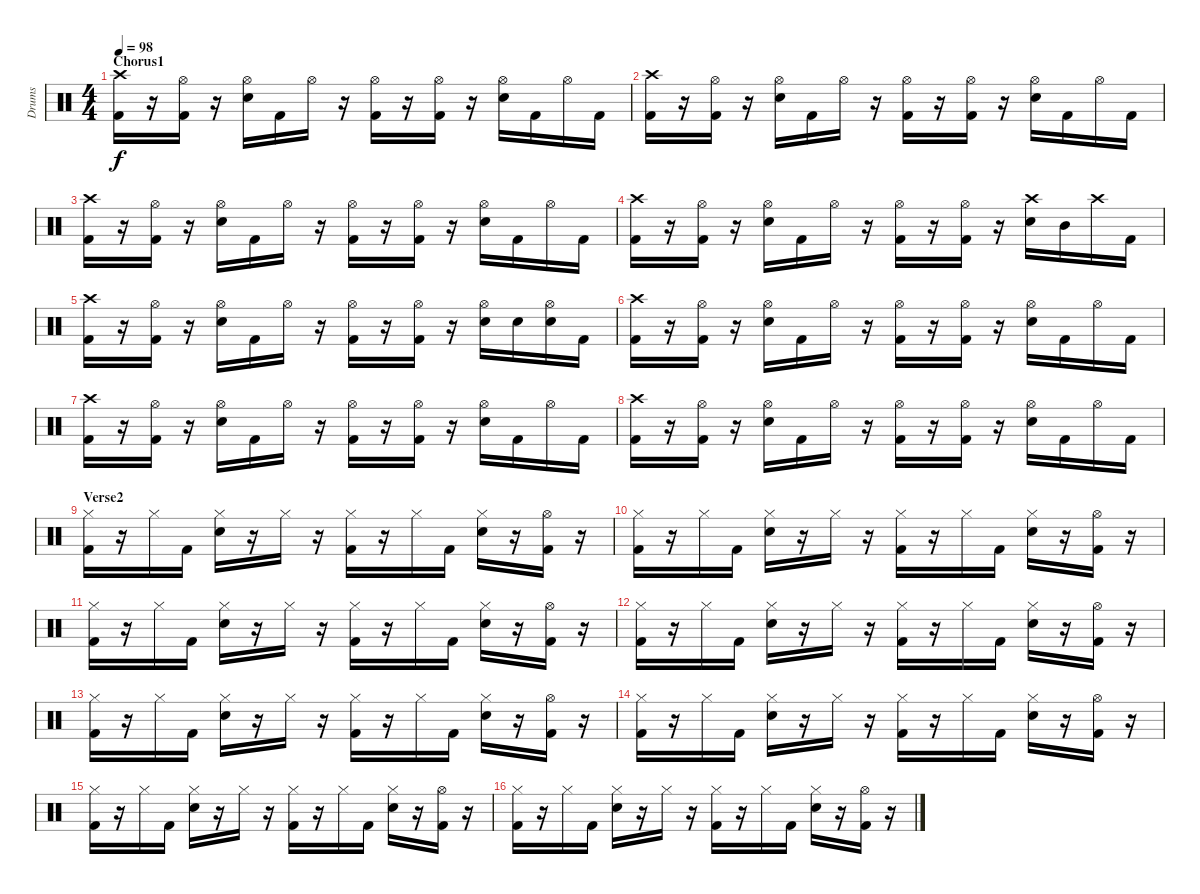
\track ("Drums" "Drums") {instrument percussion}
\staff {score}
\articulation defaults
\ts (4 4)
\section ("" "Chorus1")
\tempo 98
\clef neutral
\ks c
("Crash high (hit)" "Kick (hit) 2").16{dy f} r.16 ("Hi-Hat (open)" "Kick (hit) 2").16 r.16 ("Hi-Hat (open)" "Snare (hit) 2").16 "Kick (hit) 2".16 "Hi-Hat (open)".16 r.16 ("Hi-Hat (open)" "Kick (hit) 2").16 r.16 ("Hi-Hat (open)" "Kick (hit) 2").16 r.16 ("Hi-Hat (open)" "Snare (hit) 2").16 "Kick (hit) 2".16 "Hi-Hat (open)".16 "Kick (hit) 2".16 |
("Crash high (hit)" "Kick (hit) 2").16 r.16 ("Hi-Hat (open)" "Kick (hit) 2").16 r.16 ("Hi-Hat (open)" "Snare (hit) 2").16 "Kick (hit) 2".16 "Hi-Hat (open)".16 r.16 ("Hi-Hat (open)" "Kick (hit) 2").16 r.16 ("Hi-Hat (open)" "Kick (hit) 2").16 r.16 ("Hi-Hat (open)" "Snare (hit) 2").16 "Kick (hit) 2".16 "Hi-Hat (open)".16 "Kick (hit) 2".16 |
("Crash high (hit)" "Kick (hit) 2").16 r.16 ("Hi-Hat (open)" "Kick (hit) 2").16 r.16 ("Hi-Hat (open)" "Snare (hit) 2").16 "Kick (hit) 2".16 "Hi-Hat (open)".16 r.16 ("Hi-Hat (open)" "Kick (hit) 2").16 r.16 ("Hi-Hat (open)" "Kick (hit) 2").16 r.16 ("Hi-Hat (open)" "Snare (hit) 2").16 "Kick (hit) 2".16 "Hi-Hat (open)".16 "Kick (hit) 2".16 |
("Crash high (hit)" "Kick (hit) 2").16 r.16 ("Hi-Hat (open)" "Kick (hit) 2").16 r.16 ("Hi-Hat (open)" "Snare (hit) 2").16 "Kick (hit) 2".16 "Hi-Hat (open)".16 r.16 ("Hi-Hat (open)" "Kick (hit) 2").16 r.16 ("Hi-Hat (open)" "Kick (hit) 2").16 r.16 ("Crash high (hit)" "Snare (hit) 2").16 "Mid Tom (hit)".16 "Crash high (hit)".16 "Kick (hit) 2".16 |
("Crash high (hit)" "Kick (hit) 2").16 r.16 ("Hi-Hat (open)" "Kick (hit) 2").16 r.16 ("Hi-Hat (open)" "Snare (hit) 2").16 "Kick (hit) 2".16 "Hi-Hat (open)".16 r.16 ("Hi-Hat (open)" "Kick (hit) 2").16 r.16 ("Hi-Hat (open)" "Kick (hit) 2").16 r.16 ("Hi-Hat (open)" "Snare (hit) 2").16 "Snare (hit) 2".16 ("Hi-Hat (open)" "Snare (hit) 2").16 "Kick (hit) 2".16 |
("Crash high (hit)" "Kick (hit) 2").16 r.16 ("Hi-Hat (open)" "Kick (hit) 2").16 r.16 ("Hi-Hat (open)" "Snare (hit) 2").16 "Kick (hit) 2".16 "Hi-Hat (open)".16 r.16 ("Hi-Hat (open)" "Kick (hit) 2").16 r.16 ("Hi-Hat (open)" "Kick (hit) 2").16 r.16 ("Hi-Hat (open)" "Snare (hit) 2").16 "Kick (hit) 2".16 "Hi-Hat (open)".16 "Kick (hit) 2".16 |
("Crash high (hit)" "Kick (hit) 2").16 r.16 ("Hi-Hat (open)" "Kick (hit) 2").16 r.16 ("Hi-Hat (open)" "Snare (hit) 2").16 "Kick (hit) 2".16 "Hi-Hat (open)".16 r.16 ("Hi-Hat (open)" "Kick (hit) 2").16 r.16 ("Hi-Hat (open)" "Kick (hit) 2").16 r.16 ("Hi-Hat (open)" "Snare (hit) 2").16 "Kick (hit) 2".16 "Hi-Hat (open)".16 "Kick (hit) 2".16 |
("Crash high (hit)" "Kick (hit) 2").16 r.16 ("Hi-Hat (open)" "Kick (hit) 2").16 r.16 ("Hi-Hat (open)" "Snare (hit) 2").16 "Kick (hit) 2".16 "Hi-Hat (open)".16 r.16 ("Hi-Hat (open)" "Kick (hit) 2").16 r.16 ("Hi-Hat (open)" "Kick (hit) 2").16 r.16 ("Hi-Hat (open)" "Snare (hit) 2").16 "Kick (hit) 2".16 "Hi-Hat (open)".16 "Kick (hit) 2".16 |
\section ("" "Verse2")
("Hi-Hat (closed)" "Kick (hit) 2").16 r.16 "Hi-Hat (closed)".16 "Kick (hit) 2".16 ("Hi-Hat (closed)" "Snare (hit) 2").16 r.16 "Hi-Hat (closed)".16 r.16 ("Hi-Hat (closed)" "Kick (hit) 2").16 r.16 "Hi-Hat (closed)".16 "Kick (hit) 2".16 ("Hi-Hat (closed)" "Snare (hit) 2").16 r.16 ("Hi-Hat (open)" "Kick (hit) 2").16 r.16 |
("Hi-Hat (closed)" "Kick (hit) 2").16 r.16 "Hi-Hat (closed)".16 "Kick (hit) 2".16 ("Hi-Hat (closed)" "Snare (hit) 2").16 r.16 "Hi-Hat (closed)".16 r.16 ("Hi-Hat (closed)" "Kick (hit) 2").16 r.16 "Hi-Hat (closed)".16 "Kick (hit) 2".16 ("Hi-Hat (closed)" "Snare (hit) 2").16 r.16 ("Hi-Hat (open)" "Kick (hit) 2").16 r.16 |
("Hi-Hat (closed)" "Kick (hit) 2").16 r.16 "Hi-Hat (closed)".16 "Kick (hit) 2".16 ("Hi-Hat (closed)" "Snare (hit) 2").16 r.16 "Hi-Hat (closed)".16 r.16 ("Hi-Hat (closed)" "Kick (hit) 2").16 r.16 "Hi-Hat (closed)".16 "Kick (hit) 2".16 ("Hi-Hat (closed)" "Snare (hit) 2").16 r.16 ("Hi-Hat (open)" "Kick (hit) 2").16 r.16 |
("Hi-Hat (closed)" "Kick (hit) 2").16 r.16 "Hi-Hat (closed)".16 "Kick (hit) 2".16 ("Hi-Hat (closed)" "Snare (hit) 2").16 r.16 "Hi-Hat (closed)".16 r.16 ("Hi-Hat (closed)" "Kick (hit) 2").16 r.16 "Hi-Hat (closed)".16 "Kick (hit) 2".16 ("Hi-Hat (closed)" "Snare (hit) 2").16 r.16 ("Hi-Hat (open)" "Kick (hit) 2").16 r.16 |
("Hi-Hat (closed)" "Kick (hit) 2").16 r.16 "Hi-Hat (closed)".16 "Kick (hit) 2".16 ("Hi-Hat (closed)" "Snare (hit) 2").16 r.16 "Hi-Hat (closed)".16 r.16 ("Hi-Hat (closed)" "Kick (hit) 2").16 r.16 "Hi-Hat (closed)".16 "Kick (hit) 2".16 ("Hi-Hat (closed)" "Snare (hit) 2").16 r.16 ("Hi-Hat (open)" "Kick (hit) 2").16 r.16 |
("Hi-Hat (closed)" "Kick (hit) 2").16 r.16 "Hi-Hat (closed)".16 "Kick (hit) 2".16 ("Hi-Hat (closed)" "Snare (hit) 2").16 r.16 "Hi-Hat (closed)".16 r.16 ("Hi-Hat (closed)" "Kick (hit) 2").16 r.16 "Hi-Hat (closed)".16 "Kick (hit) 2".16 ("Hi-Hat (closed)" "Snare (hit) 2").16 r.16 ("Hi-Hat (open)" "Kick (hit) 2").16 r.16 |
("Hi-Hat (closed)" "Kick (hit) 2").16 r.16 "Hi-Hat (closed)".16 "Kick (hit) 2".16 ("Hi-Hat (closed)" "Snare (hit) 2").16 r.16 "Hi-Hat (closed)".16 r.16 ("Hi-Hat (closed)" "Kick (hit) 2").16 r.16 "Hi-Hat (closed)".16 "Kick (hit) 2".16 ("Hi-Hat (closed)" "Snare (hit) 2").16 r.16 ("Hi-Hat (open)" "Kick (hit) 2").16 r.16 |
("Hi-Hat (closed)" "Kick (hit) 2").16 r.16 "Hi-Hat (closed)".16 "Kick (hit) 2".16 ("Hi-Hat (closed)" "Snare (hit) 2").16 r.16 "Hi-Hat (closed)".16 r.16 ("Hi-Hat (closed)" "Kick (hit) 2").16 r.16 "Hi-Hat (closed)".16 "Kick (hit) 2".16 ("Hi-Hat (closed)" "Snare (hit) 2").16 r.16 ("Hi-Hat (open)" "Kick (hit) 2").16 r.16
